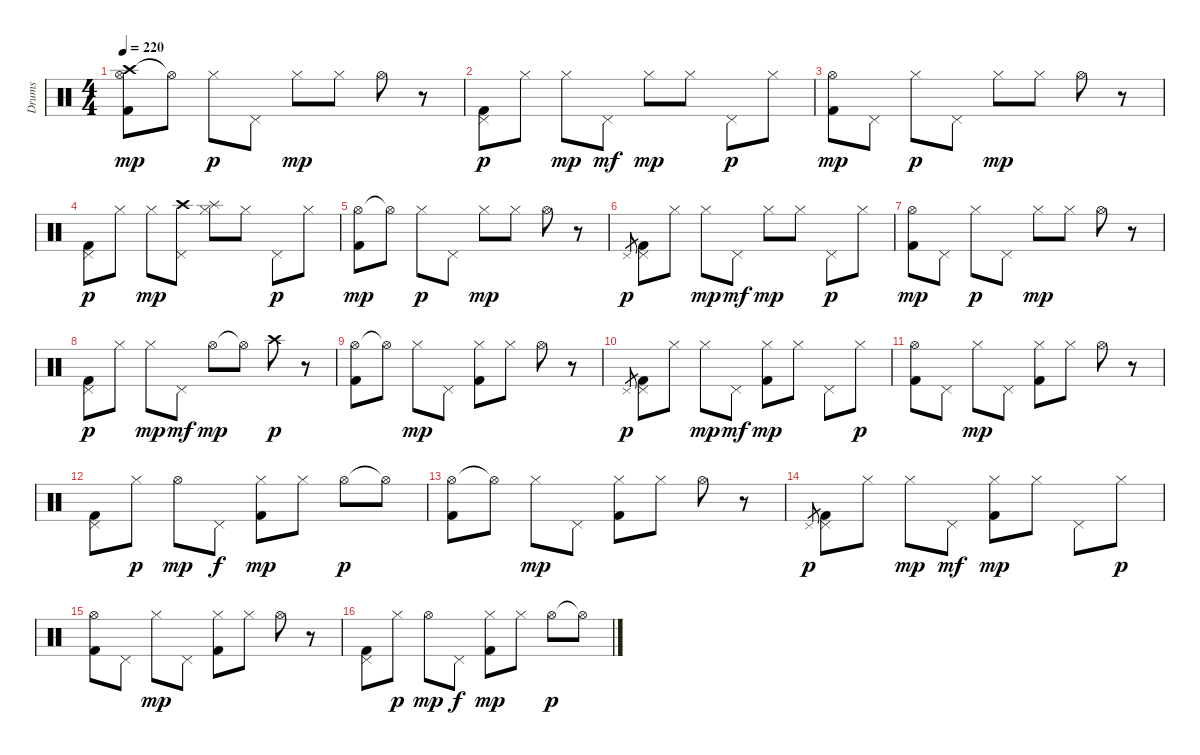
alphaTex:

\bracketExtendMode groupsimilarinstruments
\otherSystemsTrackNameOrientation horizontal
\track ("Drumkit" "Drums") {instrument percussion}
\staff {score}
\articulation defaults
\ts (4 4)
\tempo 220
\clef neutral
\ks c
("Crash high (hit)" "Hi-Hat (open)" "Kick (hit) 2").8{dy mp beam Down} "Hi-Hat (open)"{t}.8{beam Down} "Hi-Hat (closed)".8{dy p beam Down} "Pedal Hi-Hat (hit)".8{beam Down} "Hi-Hat (closed)".8{dy mp beam Down} "Hi-Hat (closed)".8{beam Down} "Hi-Hat (open)".8{beam Down} r.8{beam Down} |
("Pedal Hi-Hat (hit)" "Kick (hit) 2").8{dy p beam Down} "Hi-Hat (closed)".8{beam Down} "Hi-Hat (closed)".8{dy mp beam Down} "Pedal Hi-Hat (hit)".8{dy mf beam Down} "Hi-Hat (closed)".8{dy mp beam Down} "Hi-Hat (closed)".8{beam Down} "Pedal Hi-Hat (hit)".8{dy p beam Down} "Hi-Hat (closed)".8{beam Down} |
("Hi-Hat (open)" "Kick (hit) 2").8{dy mp beam Down} "Pedal Hi-Hat (hit)".8{beam Down} "Hi-Hat (closed)".8{dy p beam Down} "Pedal Hi-Hat (hit)".8{beam Down} "Hi-Hat (closed)".8{dy mp beam Down} "Hi-Hat (closed)".8{beam Down} "Hi-Hat (open)".8{beam Down} r.8{beam Down} |
("Pedal Hi-Hat (hit)" "Kick (hit) 2").8{dy p beam Down} "Hi-Hat (closed)".8{beam Down} "Hi-Hat (closed)".8{dy mp beam Down} ("Crash high (hit)" "Pedal Hi-Hat (hit)").8{beam Down} ("Splash (hit)" "Hi-Hat (closed)").8{beam Down} "Hi-Hat (closed)".8{beam Down} "Pedal Hi-Hat (hit)".8{dy p beam Down} "Hi-Hat (closed)".8{beam Down} |
("Hi-Hat (open)" "Kick (hit) 2").8{dy mp beam Down} "Hi-Hat (open)"{t}.8{beam Down} "Hi-Hat (closed)".8{dy p beam Down} "Pedal Hi-Hat (hit)".8{beam Down} "Hi-Hat (closed)".8{dy mp beam Down} "Hi-Hat (closed)".8{beam Down} "Hi-Hat (open)".8{beam Down} r.8{beam Down} |
"Pedal Hi-Hat (hit)".8{gr dy p beam Up} ("Pedal Hi-Hat (hit)" "Kick (hit) 2").8{beam Down} "Hi-Hat (closed)".8{beam Down} "Hi-Hat (closed)".8{dy mp beam Down} "Pedal Hi-Hat (hit)".8{dy mf beam Down} "Hi-Hat (closed)".8{dy mp beam Down} "Hi-Hat (closed)".8{beam Down} "Pedal Hi-Hat (hit)".8{dy p beam Down} "Hi-Hat (closed)".8{beam Down} |
("Hi-Hat (open)" "Kick (hit) 2").8{dy mp beam Down} "Pedal Hi-Hat (hit)".8{beam Down} "Hi-Hat (closed)".8{dy p beam Down} "Pedal Hi-Hat (hit)".8{beam Down} "Hi-Hat (closed)".8{dy mp beam Down} "Hi-Hat (closed)".8{beam Down} "Hi-Hat (open)".8{beam Down} r.8{beam Down} |
("Pedal Hi-Hat (hit)" "Kick (hit) 2").8{dy p beam Down} "Hi-Hat (closed)".8{beam Down} "Hi-Hat (closed)".8{dy mp beam Down} "Pedal Hi-Hat (hit)".8{dy mf beam Down} "Hi-Hat (open)".8{dy mp beam Down} "Hi-Hat (open)"{t}.8{beam Down} "Crash high (hit)".8{dy p beam Down} r.8{beam Down} |
("Hi-Hat (open)" "Kick (hit) 2").8{beam Down} "Hi-Hat (open)"{t}.8{beam Down} "Hi-Hat (closed)".8{dy mp beam Down} "Pedal Hi-Hat (hit)".8{beam Down} ("Hi-Hat (closed)" "Kick (hit) 2").8{beam Down} "Hi-Hat (closed)".8{beam Down} "Hi-Hat (open)".8{beam Down} r.8{beam Down} |
"Pedal Hi-Hat (hit)".8{gr dy p beam Up} ("Pedal Hi-Hat (hit)" "Kick (hit) 2").8{beam Down} "Hi-Hat (closed)".8{beam Down} "Hi-Hat (closed)".8{dy mp beam Down} "Pedal Hi-Hat (hit)".8{dy mf beam Down} ("Hi-Hat (closed)" "Kick (hit) 2").8{dy mp beam Down} "Hi-Hat (closed)".8{beam Down} "Pedal Hi-Hat (hit)".8{beam Down} "Hi-Hat (closed)".8{dy p beam Down} |
("Hi-Hat (open)" "Kick (hit) 2").8{beam Down} "Pedal Hi-Hat (hit)".8{beam Down} "Hi-Hat (closed)".8{dy mp beam Down} "Pedal Hi-Hat (hit)".8{beam Down} ("Hi-Hat (closed)" "Kick (hit) 2").8{beam Down} "Hi-Hat (closed)".8{beam Down} "Hi-Hat (open)".8{beam Down} r.8{beam Down} |
("Pedal Hi-Hat (hit)" "Kick (hit) 2").8{beam Down} "Hi-Hat (closed)".8{dy p beam Down} "Hi-Hat (open)".8{dy mp beam Down} "Pedal Hi-Hat (hit)".8{dy f beam Down} ("Hi-Hat (closed)" "Kick (hit) 2").8{dy mp beam Down} "Hi-Hat (closed)".8{beam Down} "Hi-Hat (open)".8{dy p beam Down} "Hi-Hat (open)"{t}.8{beam Down} |
("Hi-Hat (open)" "Kick (hit) 2").8{beam Down} "Hi-Hat (open)"{t}.8{beam Down} "Hi-Hat (closed)".8{dy mp beam Down} "Pedal Hi-Hat (hit)".8{beam Down} ("Hi-Hat (closed)" "Kick (hit) 2").8{beam Down} "Hi-Hat (closed)".8{beam Down} "Hi-Hat (open)".8{beam Down} r.8{beam Down} |
"Pedal Hi-Hat (hit)".8{gr dy p beam Up} ("Pedal Hi-Hat (hit)" "Kick (hit) 2").8{beam Down} "Hi-Hat (closed)".8{beam Down} "Hi-Hat (closed)".8{dy mp beam Down} "Pedal Hi-Hat (hit)".8{dy mf beam Down} ("Hi-Hat (closed)" "Kick (hit) 2").8{dy mp beam Down} "Hi-Hat (closed)".8{beam Down} "Pedal Hi-Hat (hit)".8{beam Down} "Hi-Hat (closed)".8{dy p beam Down} |
("Hi-Hat (open)" "Kick (hit) 2").8{beam Down} "Pedal Hi-Hat (hit)".8{beam Down} "Hi-Hat (closed)".8{dy mp beam Down} "Pedal Hi-Hat (hit)".8{beam Down} ("Hi-Hat (closed)" "Kick (hit) 2").8{beam Down} "Hi-Hat (closed)".8{beam Down} "Hi-Hat (open)".8{beam Down} r.8{beam Down} |
("Pedal Hi-Hat (hit)" "Kick (hit) 2").8{beam Down} "Hi-Hat (closed)".8{dy p beam Down} "Hi-Hat (open)".8{dy mp beam Down} "Pedal Hi-Hat (hit)".8{dy f beam Down} ("Hi-Hat (closed)" "Kick (hit) 2").8{dy mp beam Down} "Hi-Hat (closed)".8{beam Down} "Hi-Hat (open)".8{dy p beam Down} "Hi-Hat (open)"{t}.8{beam Down}
